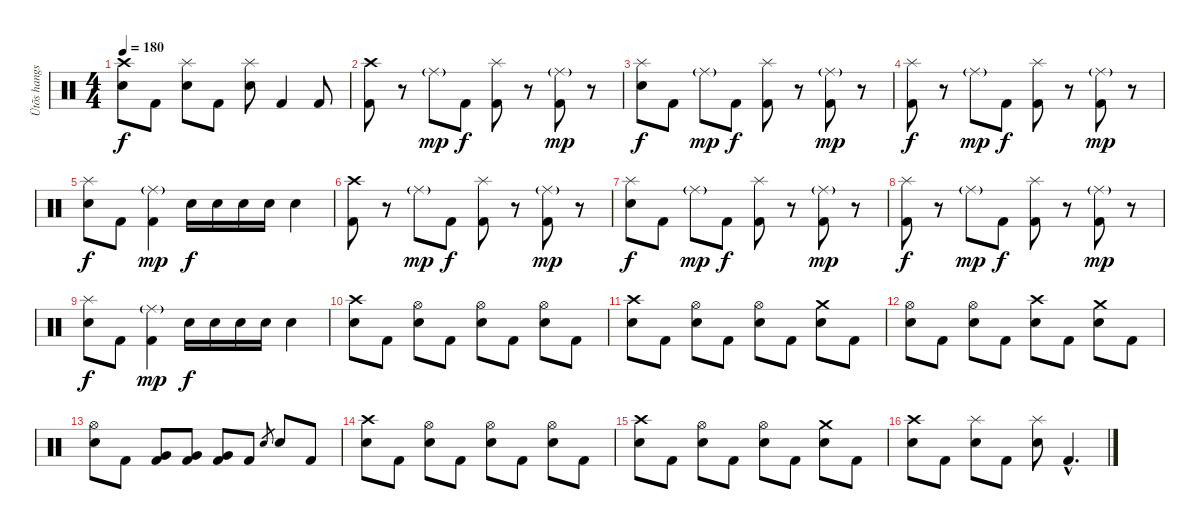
\track ("Ütõs hangszer" "Ütõs hangs") {instrument percussion}
\staff {score}
\articulation defaults
\ts (4 4)
\tempo 180
\clef neutral
\ks c
("Crash high (hit)" "Electric Snare (hit)").8{dy f} "Kick (hit) 2".8 ("Splash (hit)" "Electric Snare (hit)").8 "Kick (hit) 2".8 ("Splash (hit)" "Electric Snare (hit)").8 "Kick (hit) 2".4 "Kick (hit) 2".8 |
("Crash high (hit)" "Kick (hit) 2").8 r.8 "Ride (middle)"{g}.8{dy mp} "Kick (hit) 2".8{dy f} ("Splash (hit)" "Kick (hit) 2").8 r.8 ("Ride (middle)"{g} "Kick (hit) 2").8{dy mp} r.8 |
("Splash (hit)" "Electric Snare (hit)").8{dy f} "Kick (hit) 2".8 "Ride (middle)"{g}.8{dy mp} "Kick (hit) 2".8{dy f} ("Splash (hit)" "Kick (hit) 2").8 r.8 ("Ride (middle)"{g} "Kick (hit) 2").8{dy mp} r.8 |
("Splash (hit)" "Kick (hit) 2").8{dy f} r.8 "Ride (middle)"{g}.8{dy mp} "Kick (hit) 2".8{dy f} ("Splash (hit)" "Kick (hit) 2").8 r.8 ("Ride (middle)"{g} "Kick (hit) 2").8{dy mp} r.8 |
("Splash (hit)" "Electric Snare (hit)").8{dy f} "Kick (hit) 2".8 ("Ride (middle)"{g} "Kick (hit) 2").4{dy mp} "Electric Snare (hit)".16{dy f} "Electric Snare (hit)".16 "Electric Snare (hit)".16 "Electric Snare (hit)".16 "Electric Snare (hit)".4 |
("Crash high (hit)" "Kick (hit) 2").8 r.8 "Ride (middle)"{g}.8{dy mp} "Kick (hit) 2".8{dy f} ("Splash (hit)" "Kick (hit) 2").8 r.8 ("Ride (middle)"{g} "Kick (hit) 2").8{dy mp} r.8 |
("Splash (hit)" "Electric Snare (hit)").8{dy f} "Kick (hit) 2".8 "Ride (middle)"{g}.8{dy mp} "Kick (hit) 2".8{dy f} ("Splash (hit)" "Kick (hit) 2").8 r.8 ("Ride (middle)"{g} "Kick (hit) 2").8{dy mp} r.8 |
("Splash (hit)" "Kick (hit) 2").8{dy f} r.8 "Ride (middle)"{g}.8{dy mp} "Kick (hit) 2".8{dy f} ("Splash (hit)" "Kick (hit) 2").8 r.8 ("Ride (middle)"{g} "Kick (hit) 2").8{dy mp} r.8 |
("Splash (hit)" "Electric Snare (hit)").8{dy f} "Kick (hit) 2".8 ("Ride (middle)"{g} "Kick (hit) 2").4{dy mp} "Electric Snare (hit)".16{dy f} "Electric Snare (hit)".16 "Electric Snare (hit)".16 "Electric Snare (hit)".16 "Electric Snare (hit)".4 |
("Crash high (hit)" "Electric Snare (hit)").8 "Kick (hit) 2".8 ("Hi-Hat (open)" "Electric Snare (hit)").8 "Kick (hit) 2".8 ("Hi-Hat (open)" "Electric Snare (hit)").8 "Kick (hit) 2".8 ("Hi-Hat (open)" "Electric Snare (hit)").8 "Kick (hit) 2".8 |
("Crash high (hit)" "Electric Snare (hit)").8 "Kick (hit) 2".8 ("Hi-Hat (open)" "Electric Snare (hit)").8 "Kick (hit) 2".8 ("Hi-Hat (open)" "Electric Snare (hit)").8 "Kick (hit) 2".8 ("Crash medium (hit)" "Electric Snare (hit)").8 "Kick (hit) 2".8 |
("Hi-Hat (open)" "Electric Snare (hit)").8 "Kick (hit) 2".8 ("Hi-Hat (open)" "Electric Snare (hit)").8 "Kick (hit) 2".8 ("Crash high (hit)" "Electric Snare (hit)").8 "Kick (hit) 2".8 ("Crash medium (hit)" "Electric Snare (hit)").8 "Kick (hit) 2".8 |
("Hi-Hat (open)" "Electric Snare (hit)").8 "Kick (hit) 2".8 ("Very Low Tom (hit)" "Kick (hit) 2").8 ("Very Low Tom (hit)" "Kick (hit) 2").8 ("Very Low Tom (hit)" "Kick (hit) 2").8 "Kick (hit) 2".8 "Electric Snare (hit)".8{gr} "Electric Snare (hit)".8 "Kick (hit) 2".8 |
("Crash high (hit)" "Electric Snare (hit)").8 "Kick (hit) 2".8 ("Hi-Hat (open)" "Electric Snare (hit)").8 "Kick (hit) 2".8 ("Hi-Hat (open)" "Electric Snare (hit)").8 "Kick (hit) 2".8 ("Hi-Hat (open)" "Electric Snare (hit)").8 "Kick (hit) 2".8 |
("Crash high (hit)" "Electric Snare (hit)").8 "Kick (hit) 2".8 ("Hi-Hat (open)" "Electric Snare (hit)").8 "Kick (hit) 2".8 ("Hi-Hat (open)" "Electric Snare (hit)").8 "Kick (hit) 2".8 ("Crash medium (hit)" "Electric Snare (hit)").8 "Kick (hit) 2".8 |
("Crash high (hit)" "Electric Snare (hit)").8 "Kick (hit) 2".8 ("Splash (hit)" "Electric Snare (hit)").8 "Kick (hit) 2".8 ("Splash (hit)" "Electric Snare (hit)").8 "Kick (hit) 2"{hac}.4{d}
